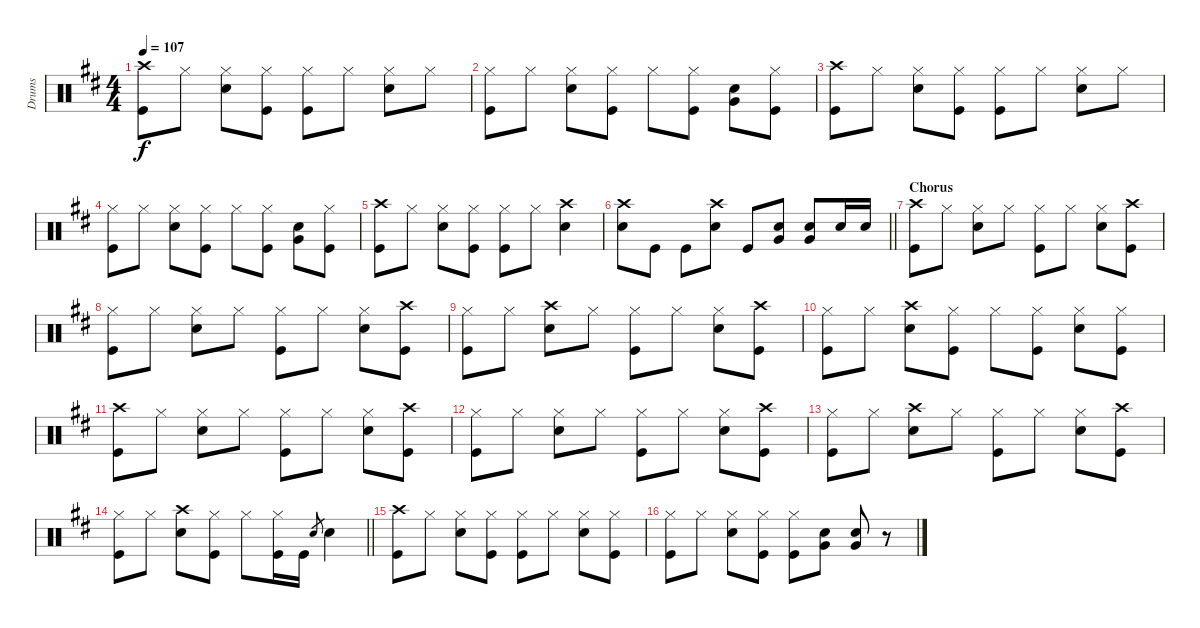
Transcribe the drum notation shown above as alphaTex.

\track ("Drums" "Drums") {instrument percussion}
\staff {score}
\articulation defaults
\ts (4 4)
\tempo 107
\clef neutral
\ks d
("Crash high (hit)" "Kick (hit)").8{dy f} "Hi-Hat (closed)".8 ("Hi-Hat (closed)" "Snare (hit) 2").8 ("Hi-Hat (closed)" "Kick (hit)").8 ("Hi-Hat (closed)" "Kick (hit)").8 "Hi-Hat (closed)".8 ("Hi-Hat (closed)" "Snare (hit) 2").8 "Hi-Hat (closed)".8 |
("Hi-Hat (closed)" "Kick (hit)").8 "Hi-Hat (closed)".8 ("Hi-Hat (closed)" "Snare (hit) 2").8 ("Hi-Hat (closed)" "Kick (hit)").8 "Hi-Hat (closed)".8 ("Hi-Hat (closed)" "Kick (hit)").8 ("Snare (hit) 2" "Very Low Tom (hit)").8 ("Hi-Hat (closed)" "Kick (hit)").8 |
("Crash high (hit)" "Kick (hit)").8 "Hi-Hat (closed)".8 ("Hi-Hat (closed)" "Snare (hit) 2").8 ("Hi-Hat (closed)" "Kick (hit)").8 ("Hi-Hat (closed)" "Kick (hit)").8 "Hi-Hat (closed)".8 ("Hi-Hat (closed)" "Snare (hit) 2").8 "Hi-Hat (closed)".8 |
("Hi-Hat (closed)" "Kick (hit)").8 "Hi-Hat (closed)".8 ("Hi-Hat (closed)" "Snare (hit) 2").8 ("Hi-Hat (closed)" "Kick (hit)").8 "Hi-Hat (closed)".8 ("Hi-Hat (closed)" "Kick (hit)").8 ("Snare (hit) 2" "Very Low Tom (hit)").8 ("Hi-Hat (closed)" "Kick (hit)").8 |
("Crash high (hit)" "Kick (hit)").8 "Hi-Hat (closed)".8 ("Hi-Hat (closed)" "Snare (hit) 2").8 ("Hi-Hat (closed)" "Kick (hit)").8 ("Hi-Hat (closed)" "Kick (hit)").8 "Hi-Hat (closed)".8 ("Crash high (hit)" "Snare (hit) 2").4 |
\barLineRight lightlight
("Crash high (hit)" "Snare (hit) 2").8 "Kick (hit)".8 "Kick (hit)".8 ("Crash high (hit)" "Snare (hit) 2").8 "Kick (hit)".8 ("Snare (hit) 2" "Very Low Tom (hit)").8 ("Snare (hit) 2" "Very Low Tom (hit)").8 "Snare (hit) 2".16 "Snare (hit) 2".16 |
\section ("" "Chorus")
("Crash high (hit)" "Kick (hit)").8 "Hi-Hat (closed)".8 ("Hi-Hat (closed)" "Snare (hit) 2").8 "Hi-Hat (closed)".8 ("Hi-Hat (closed)" "Kick (hit)").8 "Hi-Hat (closed)".8 ("Hi-Hat (closed)" "Snare (hit) 2").8 ("Crash high (hit)" "Kick (hit)").8 |
("Hi-Hat (closed)" "Kick (hit)").8 "Hi-Hat (closed)".8 ("Hi-Hat (closed)" "Snare (hit) 2").8 "Hi-Hat (closed)".8 ("Hi-Hat (closed)" "Kick (hit)").8 "Hi-Hat (closed)".8 ("Hi-Hat (closed)" "Snare (hit) 2").8 ("Crash high (hit)" "Kick (hit)").8 |
("Hi-Hat (closed)" "Kick (hit)").8 "Hi-Hat (closed)".8 ("Crash high (hit)" "Snare (hit) 2").8 "Hi-Hat (closed)".8 ("Hi-Hat (closed)" "Kick (hit)").8 "Hi-Hat (closed)".8 ("Hi-Hat (closed)" "Snare (hit) 2").8 ("Crash high (hit)" "Kick (hit)").8 |
("Hi-Hat (closed)" "Kick (hit)").8 "Hi-Hat (closed)".8 ("Crash high (hit)" "Snare (hit) 2").8 ("Hi-Hat (closed)" "Kick (hit)").8 "Hi-Hat (closed)".8 ("Hi-Hat (closed)" "Kick (hit)").8 ("Hi-Hat (closed)" "Snare (hit) 2").8 ("Hi-Hat (closed)" "Kick (hit)").8 |
("Crash high (hit)" "Kick (hit)").8 "Hi-Hat (closed)".8 ("Hi-Hat (closed)" "Snare (hit) 2").8 "Hi-Hat (closed)".8 ("Hi-Hat (closed)" "Kick (hit)").8 "Hi-Hat (closed)".8 ("Hi-Hat (closed)" "Snare (hit) 2").8 ("Crash high (hit)" "Kick (hit)").8 |
("Hi-Hat (closed)" "Kick (hit)").8 "Hi-Hat (closed)".8 ("Hi-Hat (closed)" "Snare (hit) 2").8 "Hi-Hat (closed)".8 ("Hi-Hat (closed)" "Kick (hit)").8 "Hi-Hat (closed)".8 ("Hi-Hat (closed)" "Snare (hit) 2").8 ("Crash high (hit)" "Kick (hit)").8 |
("Hi-Hat (closed)" "Kick (hit)").8 "Hi-Hat (closed)".8 ("Crash high (hit)" "Snare (hit) 2").8 "Hi-Hat (closed)".8 ("Hi-Hat (closed)" "Kick (hit)").8 "Hi-Hat (closed)".8 ("Hi-Hat (closed)" "Snare (hit) 2").8 ("Crash high (hit)" "Kick (hit)").8 |
\barLineRight lightlight
("Hi-Hat (closed)" "Kick (hit)").8 "Hi-Hat (closed)".8 ("Crash high (hit)" "Snare (hit) 2").8 ("Hi-Hat (closed)" "Kick (hit)").8 "Hi-Hat (closed)".8 ("Hi-Hat (closed)" "Kick (hit)").16 "Kick (hit)".16 "Snare (hit) 2".8{gr} "Snare (hit) 2".4 |
("Crash high (hit)" "Kick (hit)").8 "Hi-Hat (closed)".8 ("Hi-Hat (closed)" "Snare (hit) 2").8 ("Hi-Hat (closed)" "Kick (hit)").8 ("Hi-Hat (closed)" "Kick (hit)").8 "Hi-Hat (closed)".8 ("Hi-Hat (closed)" "Snare (hit) 2").8 ("Hi-Hat (closed)" "Kick (hit)").8 |
("Hi-Hat (closed)" "Kick (hit)").8 "Hi-Hat (closed)".8 ("Hi-Hat (closed)" "Snare (hit) 2").8 ("Hi-Hat (closed)" "Kick (hit)").8 ("Hi-Hat (closed)" "Kick (hit)").8 ("Snare (hit) 2" "Very Low Tom (hit)").8 ("Snare (hit) 2" "Very Low Tom (hit)").8 r.8
